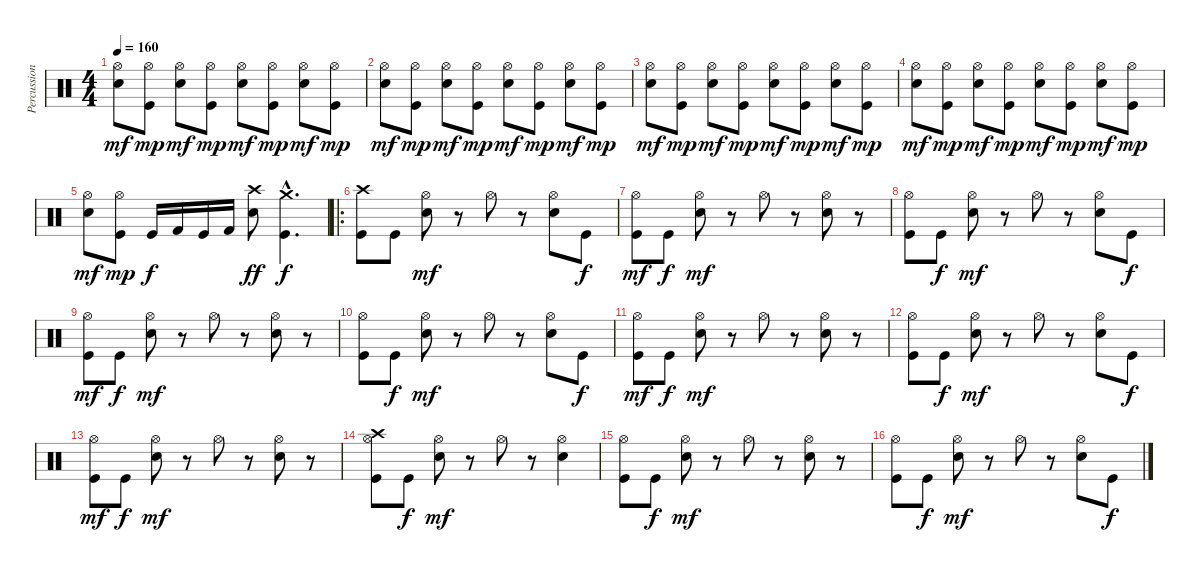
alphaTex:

\track ("Percussions" "Percussion") {instrument percussion}
\staff {score}
\articulation defaults
\ts (4 4)
\tempo 160
\clef neutral
\ks c
("Electric Snare (hit)" "Hi-Hat (open)").8{dy mf} ("Kick (hit)" "Hi-Hat (open)").8{dy mp} ("Electric Snare (hit)" "Hi-Hat (open)").8{dy mf} ("Kick (hit)" "Hi-Hat (open)").8{dy mp} ("Electric Snare (hit)" "Hi-Hat (open)").8{dy mf} ("Kick (hit)" "Hi-Hat (open)").8{dy mp} ("Electric Snare (hit)" "Hi-Hat (open)").8{dy mf} ("Kick (hit)" "Hi-Hat (open)").8{dy mp} |
("Electric Snare (hit)" "Hi-Hat (open)").8{dy mf} ("Kick (hit)" "Hi-Hat (open)").8{dy mp} ("Electric Snare (hit)" "Hi-Hat (open)").8{dy mf} ("Kick (hit)" "Hi-Hat (open)").8{dy mp} ("Electric Snare (hit)" "Hi-Hat (open)").8{dy mf} ("Kick (hit)" "Hi-Hat (open)").8{dy mp} ("Electric Snare (hit)" "Hi-Hat (open)").8{dy mf} ("Kick (hit)" "Hi-Hat (open)").8{dy mp} |
("Electric Snare (hit)" "Hi-Hat (open)").8{dy mf} ("Kick (hit)" "Hi-Hat (open)").8{dy mp} ("Electric Snare (hit)" "Hi-Hat (open)").8{dy mf} ("Kick (hit)" "Hi-Hat (open)").8{dy mp} ("Electric Snare (hit)" "Hi-Hat (open)").8{dy mf} ("Kick (hit)" "Hi-Hat (open)").8{dy mp} ("Electric Snare (hit)" "Hi-Hat (open)").8{dy mf} ("Kick (hit)" "Hi-Hat (open)").8{dy mp} |
("Electric Snare (hit)" "Hi-Hat (open)").8{dy mf} ("Kick (hit)" "Hi-Hat (open)").8{dy mp} ("Electric Snare (hit)" "Hi-Hat (open)").8{dy mf} ("Kick (hit)" "Hi-Hat (open)").8{dy mp} ("Electric Snare (hit)" "Hi-Hat (open)").8{dy mf} ("Kick (hit)" "Hi-Hat (open)").8{dy mp} ("Electric Snare (hit)" "Hi-Hat (open)").8{dy mf} ("Kick (hit)" "Hi-Hat (open)").8{dy mp} |
("Electric Snare (hit)" "Hi-Hat (open)").8{dy mf} ("Kick (hit)" "Hi-Hat (open)").8{dy mp} "Kick (hit)".16{dy f} "Kick (hit) 2".16 "Kick (hit)".16 "Kick (hit) 2".16 ("Electric Snare (hit)" "Crash high (hit)").8{dy ff} ("Kick (hit)"{hac} "Crash medium (hit)"{hac}).4{d dy f} |
\ro
("Kick (hit)" "Crash high (hit)").8 "Kick (hit)".8 ("Electric Snare (hit)" "Hi-Hat (open)").8{dy mf} r.8 "Hi-Hat (open)".8 r.8 ("Electric Snare (hit)" "Hi-Hat (open)").8 "Kick (hit)".8{dy f} |
("Kick (hit)" "Hi-Hat (open)").8{dy mf} "Kick (hit)".8{dy f} ("Electric Snare (hit)" "Hi-Hat (open)").8{dy mf} r.8 "Hi-Hat (open)".8 r.8 ("Electric Snare (hit)" "Hi-Hat (open)").8 r.8 |
("Kick (hit)" "Hi-Hat (open)").8 "Kick (hit)".8{dy f} ("Electric Snare (hit)" "Hi-Hat (open)").8{dy mf} r.8 "Hi-Hat (open)".8 r.8 ("Electric Snare (hit)" "Hi-Hat (open)").8 "Kick (hit)".8{dy f} |
("Kick (hit)" "Hi-Hat (open)").8{dy mf} "Kick (hit)".8{dy f} ("Electric Snare (hit)" "Hi-Hat (open)").8{dy mf} r.8 "Hi-Hat (open)".8 r.8 ("Electric Snare (hit)" "Hi-Hat (open)").8 r.8 |
("Kick (hit)" "Hi-Hat (open)").8 "Kick (hit)".8{dy f} ("Electric Snare (hit)" "Hi-Hat (open)").8{dy mf} r.8 "Hi-Hat (open)".8 r.8 ("Electric Snare (hit)" "Hi-Hat (open)").8 "Kick (hit)".8{dy f} |
("Kick (hit)" "Hi-Hat (open)").8{dy mf} "Kick (hit)".8{dy f} ("Electric Snare (hit)" "Hi-Hat (open)").8{dy mf} r.8 "Hi-Hat (open)".8 r.8 ("Electric Snare (hit)" "Hi-Hat (open)").8 r.8 |
("Kick (hit)" "Hi-Hat (open)").8 "Kick (hit)".8{dy f} ("Electric Snare (hit)" "Hi-Hat (open)").8{dy mf} r.8 "Hi-Hat (open)".8 r.8 ("Electric Snare (hit)" "Hi-Hat (open)").8 "Kick (hit)".8{dy f} |
("Kick (hit)" "Hi-Hat (open)").8{dy mf} "Kick (hit)".8{dy f} ("Electric Snare (hit)" "Hi-Hat (open)").8{dy mf} r.8 "Hi-Hat (open)".8 r.8 ("Electric Snare (hit)" "Hi-Hat (open)").8 r.8 |
("Kick (hit)" "Hi-Hat (open)" "Crash high (hit)").8 "Kick (hit)".8{dy f} ("Electric Snare (hit)" "Hi-Hat (open)").8{dy mf} r.8 "Hi-Hat (open)".8 r.8 ("Electric Snare (hit)" "Hi-Hat (open)").4 |
("Kick (hit)" "Hi-Hat (open)").8 "Kick (hit)".8{dy f} ("Electric Snare (hit)" "Hi-Hat (open)").8{dy mf} r.8 "Hi-Hat (open)".8 r.8 ("Electric Snare (hit)" "Hi-Hat (open)").8 r.8 |
("Kick (hit)" "Hi-Hat (open)").8 "Kick (hit)".8{dy f} ("Electric Snare (hit)" "Hi-Hat (open)").8{dy mf} r.8 "Hi-Hat (open)".8 r.8 ("Electric Snare (hit)" "Hi-Hat (open)").8 "Kick (hit)".8{dy f}
